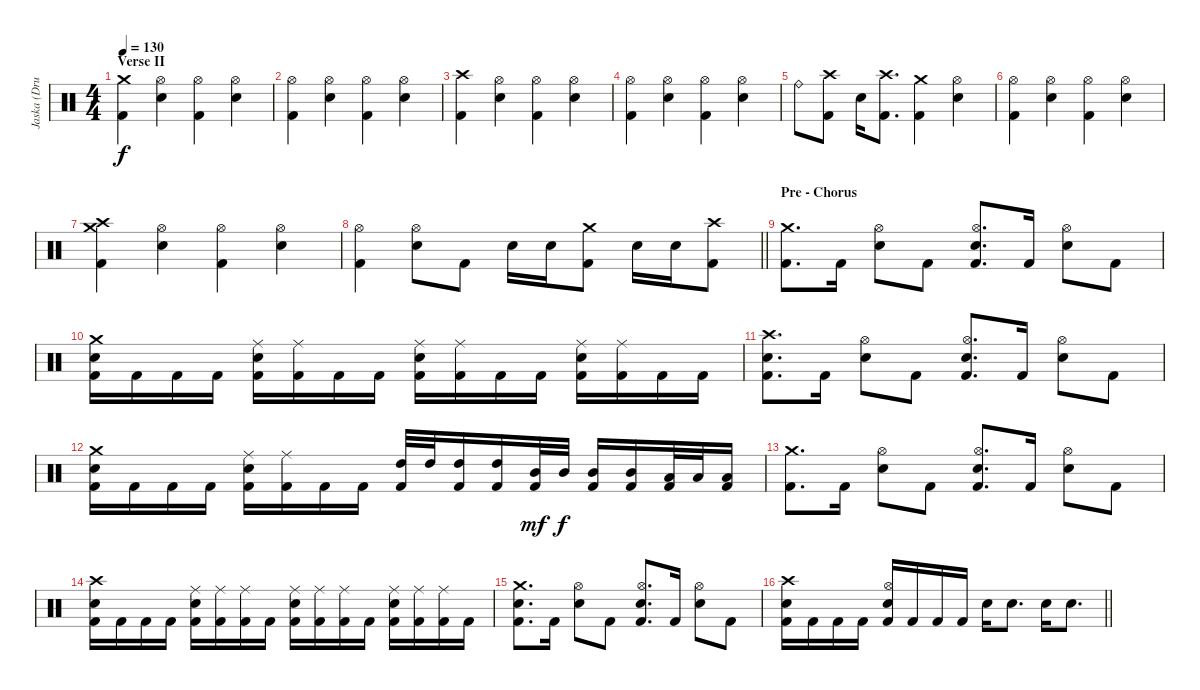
\track ("Jaska (Drums)" "Jaska (Dru") {instrument percussion}
\staff {score}
\articulation defaults
\ts (4 4)
\section ("" "Verse II")
\tempo 130
\clef neutral
\ks c
("Crash medium (hit)" "Kick (hit) 2").4{dy f} ("Hi-Hat (open)" "Electric Snare (hit)").4 ("Hi-Hat (open)" "Kick (hit) 2").4 ("Hi-Hat (open)" "Electric Snare (hit)").4 |
("Hi-Hat (open)" "Kick (hit) 2").4 ("Hi-Hat (open)" "Electric Snare (hit)").4 ("Hi-Hat (open)" "Kick (hit) 2").4 ("Hi-Hat (open)" "Electric Snare (hit)").4 |
("Crash high (hit)" "Kick (hit) 2").4 ("Hi-Hat (open)" "Electric Snare (hit)").4 ("Hi-Hat (open)" "Kick (hit) 2").4 ("Hi-Hat (open)" "Electric Snare (hit)").4 |
("Hi-Hat (open)" "Kick (hit) 2").4 ("Hi-Hat (open)" "Electric Snare (hit)").4 ("Hi-Hat (open)" "Kick (hit) 2").4 ("Hi-Hat (open)" "Electric Snare (hit)").4 |
"Ride (bell)".8 ("Crash high (hit)" "Kick (hit) 2").8 "Electric Snare (hit)".16 ("Crash high (hit)" "Kick (hit) 2").8{d} ("Crash medium (hit)" "Kick (hit) 2").4 ("Hi-Hat (open)" "Electric Snare (hit)").4 |
("Hi-Hat (open)" "Kick (hit) 2").4 ("Hi-Hat (open)" "Electric Snare (hit)").4 ("Hi-Hat (open)" "Kick (hit) 2").4 ("Hi-Hat (open)" "Electric Snare (hit)").4 |
("Crash medium (hit)" "Crash high (hit)" "Kick (hit) 2").4 ("Hi-Hat (open)" "Electric Snare (hit)").4 ("Hi-Hat (open)" "Kick (hit) 2").4 ("Hi-Hat (open)" "Electric Snare (hit)").4 |
\barLineRight lightlight
("Hi-Hat (open)" "Kick (hit) 2").4 ("Hi-Hat (open)" "Electric Snare (hit)").8 "Kick (hit) 2".8 "Electric Snare (hit)".16 "Electric Snare (hit)".16 ("Crash medium (hit)" "Kick (hit) 2").8 "Electric Snare (hit)".16 "Electric Snare (hit)".16 ("Crash high (hit)" "Kick (hit) 2").8 |
\section ("" "Pre - Chorus")
("Crash medium (hit)" "Kick (hit) 2").8{d} "Kick (hit) 2".16 ("Hi-Hat (open)" "Electric Snare (hit)").8 "Kick (hit) 2".8 ("Hi-Hat (open)" "Electric Snare (hit)" "Kick (hit) 2").8{d} "Kick (hit) 2".16 ("Hi-Hat (open)" "Electric Snare (hit)").8 "Kick (hit) 2".8 |
("Crash medium (hit)" "Electric Snare (hit)" "Kick (hit) 2").16 "Kick (hit) 2".16 "Kick (hit) 2".16 "Kick (hit) 2".16 ("Ride (middle)" "Electric Snare (hit)" "Kick (hit) 2").16 ("Ride (middle)" "Kick (hit) 2").16 "Kick (hit) 2".16 "Kick (hit) 2".16 ("Ride (middle)" "Electric Snare (hit)" "Kick (hit) 2").16 ("Ride (middle)" "Kick (hit) 2").16 "Kick (hit) 2".16 "Kick (hit) 2".16 ("Ride (middle)" "Electric Snare (hit)" "Kick (hit) 2").16 ("Ride (middle)" "Kick (hit) 2").16 "Kick (hit) 2".16 "Kick (hit) 2".16 |
("Crash high (hit)" "Electric Snare (hit)" "Kick (hit) 2").8{d} "Kick (hit) 2".16 ("Hi-Hat (open)" "Electric Snare (hit)").8 "Kick (hit) 2".8 ("Hi-Hat (open)" "Electric Snare (hit)" "Kick (hit) 2").8{d} "Kick (hit) 2".16 ("Hi-Hat (open)" "Electric Snare (hit)").8 "Kick (hit) 2".8 |
("Crash medium (hit)" "Electric Snare (hit)" "Kick (hit) 2").16 "Kick (hit) 2".16 "Kick (hit) 2".16 "Kick (hit) 2".16 ("Ride (middle)" "Electric Snare (hit)" "Kick (hit) 2").16 ("Ride (middle)" "Kick (hit) 2").16 "Kick (hit) 2".16 "Kick (hit) 2".16 ("High Tom (hit)" "Kick (hit) 2").32 "High Tom (hit)".32 ("High Tom (hit)" "Kick (hit) 2").16 ("High Tom (hit)" "Kick (hit) 2").16 ("Mid Tom (hit)" "Kick (hit) 2").32{dy mf} "Mid Tom (hit)".32{dy f} ("Mid Tom (hit)" "Kick (hit) 2").16 ("Mid Tom (hit)" "Kick (hit) 2").16 ("Low Tom (hit)" "Kick (hit) 2").32 "Low Tom (hit)".32 ("Low Tom (hit)" "Kick (hit) 2").16 |
("Crash medium (hit)" "Kick (hit) 2").8{d} "Kick (hit) 2".16 ("Hi-Hat (open)" "Electric Snare (hit)").8 "Kick (hit) 2".8 ("Hi-Hat (open)" "Electric Snare (hit)" "Kick (hit) 2").8{d} "Kick (hit) 2".16 ("Hi-Hat (open)" "Electric Snare (hit)").8 "Kick (hit) 2".8 |
("Crash high (hit)" "Electric Snare (hit)" "Kick (hit) 2").16 "Kick (hit) 2".16 "Kick (hit) 2".16 "Kick (hit) 2".16 ("Ride (middle)" "Electric Snare (hit)" "Kick (hit) 2").16 ("Ride (middle)" "Kick (hit) 2").16 ("Ride (middle)" "Kick (hit) 2").16 "Kick (hit) 2".16 ("Ride (middle)" "Electric Snare (hit)" "Kick (hit) 2").16 ("Ride (middle)" "Kick (hit) 2").16 ("Ride (middle)" "Kick (hit) 2").16 "Kick (hit) 2".16 ("Ride (middle)" "Electric Snare (hit)" "Kick (hit) 2").16 ("Ride (middle)" "Kick (hit) 2").16 ("Ride (middle)" "Kick (hit) 2").16 "Kick (hit) 2".16 |
("Crash medium (hit)" "Electric Snare (hit)" "Kick (hit) 2").8{d} "Kick (hit) 2".16 ("Hi-Hat (open)" "Electric Snare (hit)").8 "Kick (hit) 2".8 ("Hi-Hat (open)" "Electric Snare (hit)" "Kick (hit) 2").8{d} "Kick (hit) 2".16 ("Hi-Hat (open)" "Electric Snare (hit)").8 "Kick (hit) 2".8 |
\barLineRight lightlight
("Crash high (hit)" "Electric Snare (hit)" "Kick (hit) 2").16 "Kick (hit) 2".16 "Kick (hit) 2".16 "Kick (hit) 2".16 ("Hi-Hat (open)" "Electric Snare (hit)" "Kick (hit) 2").16 "Kick (hit) 2".16 "Kick (hit) 2".16 "Kick (hit) 2".16 "Electric Snare (hit)".16 "Electric Snare (hit)".8{d} "Electric Snare (hit)".16 "Electric Snare (hit)".8{d}
